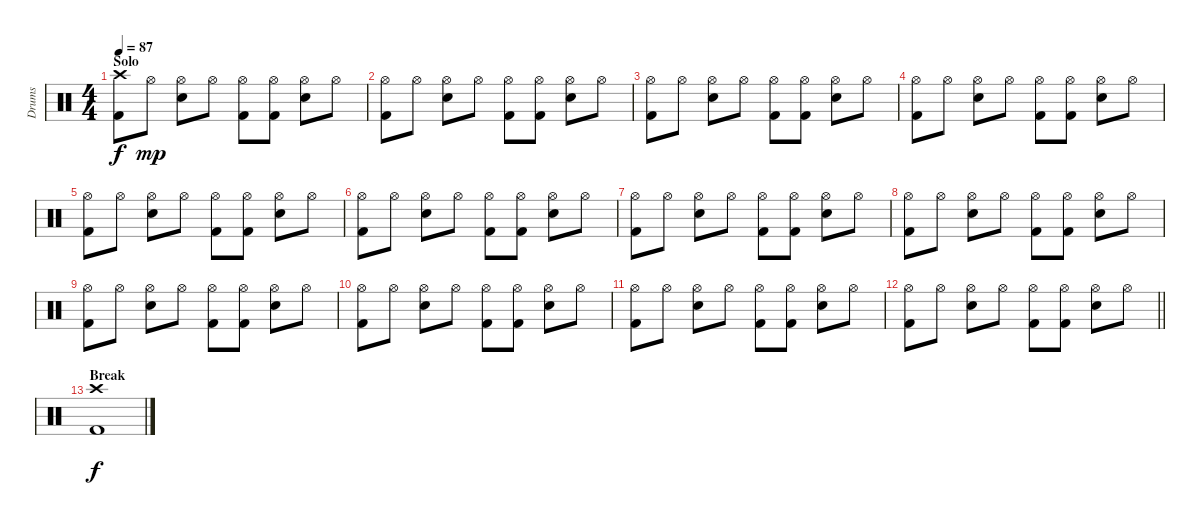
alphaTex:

\track ("Drums" "Drums") {instrument percussion}
\staff {score}
\articulation defaults
\ts (4 4)
\section ("" "Solo")
\tempo 87
\clef neutral
\ks c
("Crash high (hit)" "Kick (hit) 2").8{dy f} "Hi-Hat (open)".8{dy mp} ("Hi-Hat (open)" "Snare (hit) 2").8 "Hi-Hat (open)".8 ("Hi-Hat (open)" "Kick (hit) 2").8 ("Hi-Hat (open)" "Kick (hit) 2").8 ("Hi-Hat (open)" "Snare (hit) 2").8 "Hi-Hat (open)".8 |
("Hi-Hat (open)" "Kick (hit) 2").8 "Hi-Hat (open)".8 ("Hi-Hat (open)" "Snare (hit) 2").8 "Hi-Hat (open)".8 ("Hi-Hat (open)" "Kick (hit) 2").8 ("Hi-Hat (open)" "Kick (hit) 2").8 ("Hi-Hat (open)" "Snare (hit) 2").8 "Hi-Hat (open)".8 |
("Hi-Hat (open)" "Kick (hit) 2").8 "Hi-Hat (open)".8 ("Hi-Hat (open)" "Snare (hit) 2").8 "Hi-Hat (open)".8 ("Hi-Hat (open)" "Kick (hit) 2").8 ("Hi-Hat (open)" "Kick (hit) 2").8 ("Hi-Hat (open)" "Snare (hit) 2").8 "Hi-Hat (open)".8 |
("Hi-Hat (open)" "Kick (hit) 2").8 "Hi-Hat (open)".8 ("Hi-Hat (open)" "Snare (hit) 2").8 "Hi-Hat (open)".8 ("Hi-Hat (open)" "Kick (hit) 2").8 ("Hi-Hat (open)" "Kick (hit) 2").8 ("Hi-Hat (open)" "Snare (hit) 2").8 "Hi-Hat (open)".8 |
("Hi-Hat (open)" "Kick (hit) 2").8 "Hi-Hat (open)".8 ("Hi-Hat (open)" "Snare (hit) 2").8 "Hi-Hat (open)".8 ("Hi-Hat (open)" "Kick (hit) 2").8 ("Hi-Hat (open)" "Kick (hit) 2").8 ("Hi-Hat (open)" "Snare (hit) 2").8 "Hi-Hat (open)".8 |
("Hi-Hat (open)" "Kick (hit) 2").8 "Hi-Hat (open)".8 ("Hi-Hat (open)" "Snare (hit) 2").8 "Hi-Hat (open)".8 ("Hi-Hat (open)" "Kick (hit) 2").8 ("Hi-Hat (open)" "Kick (hit) 2").8 ("Hi-Hat (open)" "Snare (hit) 2").8 "Hi-Hat (open)".8 |
("Hi-Hat (open)" "Kick (hit) 2").8 "Hi-Hat (open)".8 ("Hi-Hat (open)" "Snare (hit) 2").8 "Hi-Hat (open)".8 ("Hi-Hat (open)" "Kick (hit) 2").8 ("Hi-Hat (open)" "Kick (hit) 2").8 ("Hi-Hat (open)" "Snare (hit) 2").8 "Hi-Hat (open)".8 |
("Hi-Hat (open)" "Kick (hit) 2").8 "Hi-Hat (open)".8 ("Hi-Hat (open)" "Snare (hit) 2").8 "Hi-Hat (open)".8 ("Hi-Hat (open)" "Kick (hit) 2").8 ("Hi-Hat (open)" "Kick (hit) 2").8 ("Hi-Hat (open)" "Snare (hit) 2").8 "Hi-Hat (open)".8 |
("Hi-Hat (open)" "Kick (hit) 2").8 "Hi-Hat (open)".8 ("Hi-Hat (open)" "Snare (hit) 2").8 "Hi-Hat (open)".8 ("Hi-Hat (open)" "Kick (hit) 2").8 ("Hi-Hat (open)" "Kick (hit) 2").8 ("Hi-Hat (open)" "Snare (hit) 2").8 "Hi-Hat (open)".8 |
("Hi-Hat (open)" "Kick (hit) 2").8 "Hi-Hat (open)".8 ("Hi-Hat (open)" "Snare (hit) 2").8 "Hi-Hat (open)".8 ("Hi-Hat (open)" "Kick (hit) 2").8 ("Hi-Hat (open)" "Kick (hit) 2").8 ("Hi-Hat (open)" "Snare (hit) 2").8 "Hi-Hat (open)".8 |
("Hi-Hat (open)" "Kick (hit) 2").8 "Hi-Hat (open)".8 ("Hi-Hat (open)" "Snare (hit) 2").8 "Hi-Hat (open)".8 ("Hi-Hat (open)" "Kick (hit) 2").8 ("Hi-Hat (open)" "Kick (hit) 2").8 ("Hi-Hat (open)" "Snare (hit) 2").8 "Hi-Hat (open)".8 |
\barLineRight lightlight
("Hi-Hat (open)" "Kick (hit) 2").8 "Hi-Hat (open)".8 ("Hi-Hat (open)" "Snare (hit) 2").8 "Hi-Hat (open)".8 ("Hi-Hat (open)" "Kick (hit) 2").8 ("Hi-Hat (open)" "Kick (hit) 2").8 ("Hi-Hat (open)" "Snare (hit) 2").8 "Hi-Hat (open)".8 |
\section ("" "Break")
("Crash high (hit)" "Kick (hit) 2").1{dy f}
